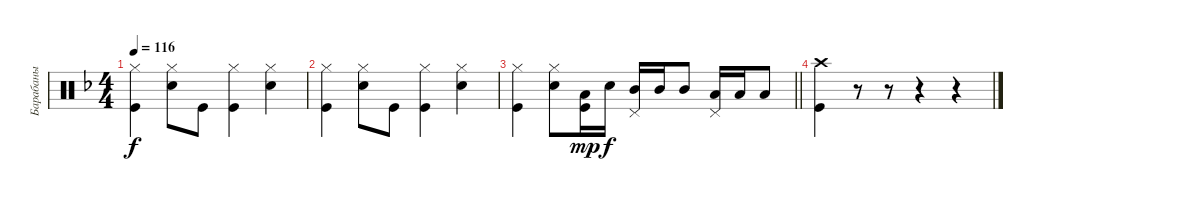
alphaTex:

\track ("Барабаны" "Барабаны") {instrument percussion}
\staff {score}
\articulation defaults
\ts (4 4)
\tempo 116
\clef neutral
\ks dminor
("Hi-Hat (closed)" "Kick (hit)").4{dy f} ("Hi-Hat (closed)" "Snare (hit) 2").8 "Kick (hit)".8 ("Hi-Hat (closed)" "Kick (hit)").4 ("Hi-Hat (closed)" "Snare (hit) 2").4 |
("Hi-Hat (closed)" "Kick (hit)").4 ("Hi-Hat (closed)" "Snare (hit) 2").8 "Kick (hit)".8 ("Hi-Hat (closed)" "Kick (hit)").4 ("Hi-Hat (closed)" "Snare (hit) 2").4 |
\barLineRight lightlight
("Hi-Hat (closed)" "Kick (hit)").4 ("Hi-Hat (closed)" "Snare (hit) 2").8 ("Low Floor Tom (hit)" "Kick (hit)").16{dy mp} "Snare (hit) 2".16{dy f} ("Mid Tom (hit)" "Pedal Hi-Hat (hit)").16 "Mid Tom (hit)".16 "Mid Tom (hit)".8 ("Pedal Hi-Hat (hit)" "Low Tom (hit)").16 "Low Tom (hit)".16 "Low Tom (hit)".8 |
("Kick (hit)" "Crash high (hit)").4 r.8 r.8 r.4 r.4
